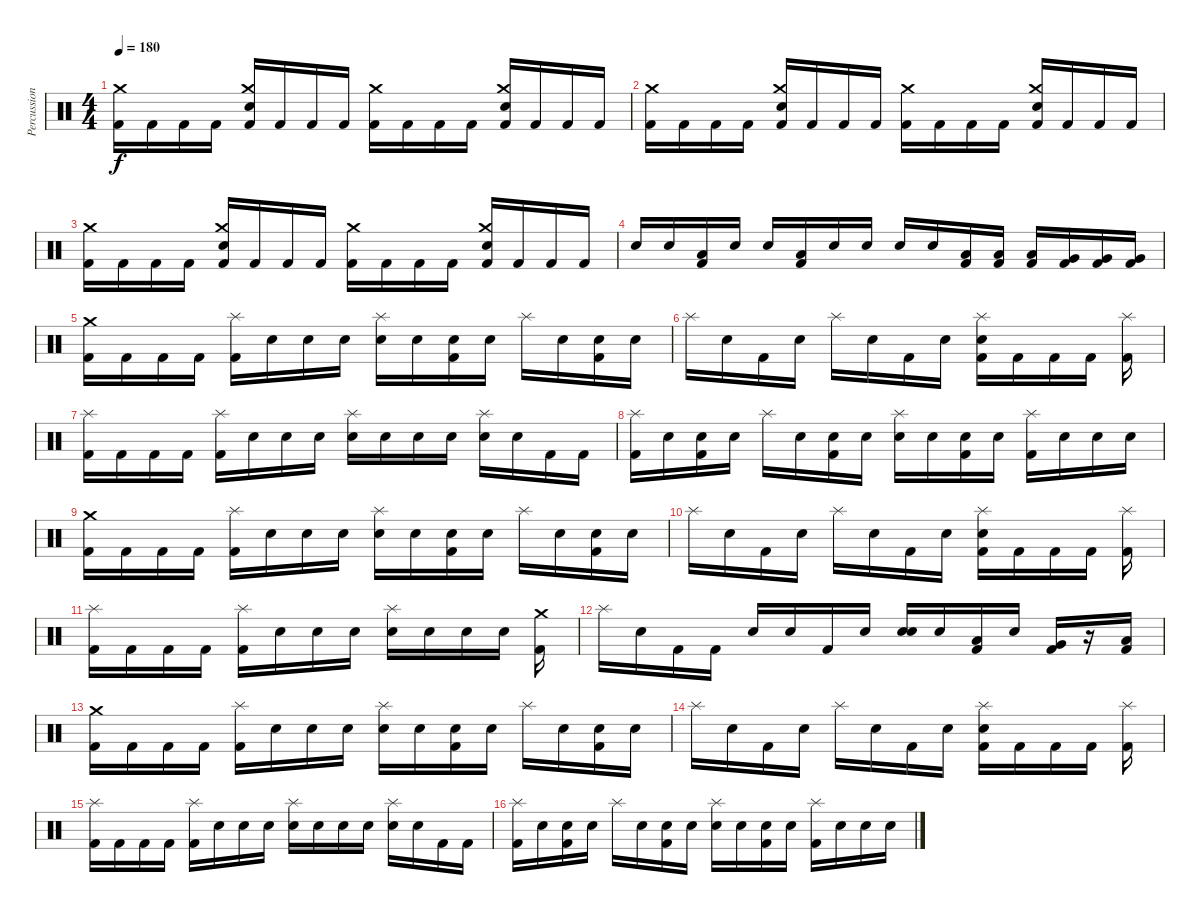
\track ("Percussion" "Percussion") {instrument percussion}
\staff {score}
\articulation defaults
\ts (4 4)
\tempo 180
\clef neutral
\ks c
("Kick (hit) 2" "Crash medium (hit)").16{dy f} "Kick (hit) 2".16 "Kick (hit) 2".16 "Kick (hit) 2".16 ("Kick (hit) 2" "Crash medium (hit)" "Snare (hit) 2").16 "Kick (hit) 2".16 "Kick (hit) 2".16 "Kick (hit) 2".16 ("Kick (hit) 2" "Crash medium (hit)").16 "Kick (hit) 2".16 "Kick (hit) 2".16 "Kick (hit) 2".16 ("Kick (hit) 2" "Crash medium (hit)" "Snare (hit) 2").16 "Kick (hit) 2".16 "Kick (hit) 2".16 "Kick (hit) 2".16 |
("Kick (hit) 2" "Crash medium (hit)").16 "Kick (hit) 2".16 "Kick (hit) 2".16 "Kick (hit) 2".16 ("Kick (hit) 2" "Crash medium (hit)" "Snare (hit) 2").16 "Kick (hit) 2".16 "Kick (hit) 2".16 "Kick (hit) 2".16 ("Kick (hit) 2" "Crash medium (hit)").16 "Kick (hit) 2".16 "Kick (hit) 2".16 "Kick (hit) 2".16 ("Kick (hit) 2" "Crash medium (hit)" "Snare (hit) 2").16 "Kick (hit) 2".16 "Kick (hit) 2".16 "Kick (hit) 2".16 |
("Kick (hit) 2" "Crash medium (hit)").16 "Kick (hit) 2".16 "Kick (hit) 2".16 "Kick (hit) 2".16 ("Kick (hit) 2" "Crash medium (hit)" "Snare (hit) 2").16 "Kick (hit) 2".16 "Kick (hit) 2".16 "Kick (hit) 2".16 ("Kick (hit) 2" "Crash medium (hit)").16 "Kick (hit) 2".16 "Kick (hit) 2".16 "Kick (hit) 2".16 ("Kick (hit) 2" "Crash medium (hit)" "Snare (hit) 2").16 "Kick (hit) 2".16 "Kick (hit) 2".16 "Kick (hit) 2".16 |
"Snare (hit) 2".16 "Snare (hit) 2".16 ("Low Tom (hit)" "Kick (hit) 2").16 "Snare (hit) 2".16 "Snare (hit) 2".16 ("Low Tom (hit)" "Kick (hit) 2").16 "Snare (hit) 2".16 "Snare (hit) 2".16 "Snare (hit) 2".16 "Snare (hit) 2".16 ("Low Tom (hit)" "Kick (hit) 2").16 ("Low Tom (hit)" "Kick (hit) 2").16 ("Low Tom (hit)" "Kick (hit) 2").16 ("Very Low Tom (hit)" "Kick (hit) 2").16 ("Very Low Tom (hit)" "Kick (hit) 2").16 ("Very Low Tom (hit)" "Kick (hit) 2").16 |
("Crash medium (hit)" "Kick (hit) 2").16 "Kick (hit) 2".16 "Kick (hit) 2".16 "Kick (hit) 2".16 ("Splash (hit)" "Kick (hit) 2").16 "Snare (hit)".16 "Snare (hit)".16 "Snare (hit)".16 ("Splash (hit)" "Snare (hit) 2").16 "Snare (hit)".16 ("Snare (hit)" "Kick (hit) 2").16 "Snare (hit)".16 "Splash (hit)".16 "Snare (hit)".16 ("Snare (hit)" "Kick (hit) 2").16 "Snare (hit)".16 |
"Splash (hit)".16 "Snare (hit)".16 "Kick (hit) 2".16 "Snare (hit)".16 "Splash (hit)".16 "Snare (hit)".16 "Kick (hit) 2".16 "Snare (hit)".16 ("Kick (hit) 2" "Snare (hit) 2" "Splash (hit)").16 "Kick (hit) 2".16 "Kick (hit) 2".16 "Kick (hit) 2".16 ("Kick (hit) 2" "Splash (hit)").16 |
("Splash (hit)" "Kick (hit) 2").16 "Kick (hit) 2".16 "Kick (hit) 2".16 "Kick (hit) 2".16 ("Splash (hit)" "Kick (hit) 2").16 "Snare (hit)".16 "Snare (hit)".16 "Snare (hit)".16 ("Splash (hit)" "Snare (hit) 2").16 "Snare (hit)".16 "Snare (hit)".16 "Snare (hit)".16 ("Splash (hit)" "Snare (hit)").16 "Snare (hit)".16 "Kick (hit) 2".16 "Kick (hit) 2".16 |
("Splash (hit)" "Kick (hit) 2").16 "Snare (hit)".16 ("Kick (hit) 2" "Snare (hit)").16 "Snare (hit)".16 "Splash (hit)".16 "Snare (hit)".16 ("Kick (hit) 2" "Snare (hit)").16 "Snare (hit)".16 ("Snare (hit) 2" "Splash (hit)").16 "Snare (hit)".16 ("Kick (hit) 2" "Snare (hit)").16 "Snare (hit)".16 ("Kick (hit) 2" "Splash (hit)").16 "Snare (hit)".16 "Snare (hit)".16 "Snare (hit)".16 |
("Crash medium (hit)" "Kick (hit) 2").16 "Kick (hit) 2".16 "Kick (hit) 2".16 "Kick (hit) 2".16 ("Splash (hit)" "Kick (hit) 2").16 "Snare (hit)".16 "Snare (hit)".16 "Snare (hit)".16 ("Splash (hit)" "Snare (hit) 2").16 "Snare (hit)".16 ("Snare (hit)" "Kick (hit) 2").16 "Snare (hit)".16 "Splash (hit)".16 "Snare (hit)".16 ("Snare (hit)" "Kick (hit) 2").16 "Snare (hit)".16 |
"Splash (hit)".16 "Snare (hit)".16 "Kick (hit) 2".16 "Snare (hit)".16 "Splash (hit)".16 "Snare (hit)".16 "Kick (hit) 2".16 "Snare (hit)".16 ("Kick (hit) 2" "Snare (hit) 2" "Splash (hit)").16 "Kick (hit) 2".16 "Kick (hit) 2".16 "Kick (hit) 2".16 ("Kick (hit) 2" "Splash (hit)").16 |
("Splash (hit)" "Kick (hit) 2").16 "Kick (hit) 2".16 "Kick (hit) 2".16 "Kick (hit) 2".16 ("Splash (hit)" "Kick (hit) 2").16 "Snare (hit)".16 "Snare (hit)".16 "Snare (hit)".16 ("Splash (hit)" "Snare (hit) 2").16 "Snare (hit)".16 "Snare (hit)".16 "Snare (hit)".16 ("Crash medium (hit)" "Kick (hit) 2").16 |
"Splash (hit)".16 "Snare (hit)".16 "Kick (hit) 2".16 "Kick (hit) 2".16 "Snare (hit) 2".16 "Snare (hit)".16 "Kick (hit) 2".16 "Snare (hit)".16 ("Snare (hit) 2" "Snare (hit)").16 "Snare (hit)".16 ("Low Tom (hit)" "Kick (hit) 2").16 "Snare (hit)".16 ("Very Low Tom (hit)" "Kick (hit) 2").16 r.16 ("Low Floor Tom (hit)" "Kick (hit) 2").16 |
("Crash medium (hit)" "Kick (hit) 2").16 "Kick (hit) 2".16 "Kick (hit) 2".16 "Kick (hit) 2".16 ("Splash (hit)" "Kick (hit) 2").16 "Snare (hit)".16 "Snare (hit)".16 "Snare (hit)".16 ("Splash (hit)" "Snare (hit) 2").16 "Snare (hit)".16 ("Snare (hit)" "Kick (hit) 2").16 "Snare (hit)".16 "Splash (hit)".16 "Snare (hit)".16 ("Snare (hit)" "Kick (hit) 2").16 "Snare (hit)".16 |
"Splash (hit)".16 "Snare (hit)".16 "Kick (hit) 2".16 "Snare (hit)".16 "Splash (hit)".16 "Snare (hit)".16 "Kick (hit) 2".16 "Snare (hit)".16 ("Kick (hit) 2" "Snare (hit) 2" "Splash (hit)").16 "Kick (hit) 2".16 "Kick (hit) 2".16 "Kick (hit) 2".16 ("Kick (hit) 2" "Splash (hit)").16 |
("Splash (hit)" "Kick (hit) 2").16 "Kick (hit) 2".16 "Kick (hit) 2".16 "Kick (hit) 2".16 ("Splash (hit)" "Kick (hit) 2").16 "Snare (hit)".16 "Snare (hit)".16 "Snare (hit)".16 ("Splash (hit)" "Snare (hit) 2").16 "Snare (hit)".16 "Snare (hit)".16 "Snare (hit)".16 ("Splash (hit)" "Snare (hit)").16 "Snare (hit)".16 "Kick (hit) 2".16 "Kick (hit) 2".16 |
("Splash (hit)" "Kick (hit) 2").16 "Snare (hit)".16 ("Kick (hit) 2" "Snare (hit)").16 "Snare (hit)".16 "Splash (hit)".16 "Snare (hit)".16 ("Kick (hit) 2" "Snare (hit)").16 "Snare (hit)".16 ("Snare (hit) 2" "Splash (hit)").16 "Snare (hit)".16 ("Kick (hit) 2" "Snare (hit)").16 "Snare (hit)".16 ("Kick (hit) 2" "Splash (hit)").16 "Snare (hit)".16 "Snare (hit)".16 "Snare (hit)".16
